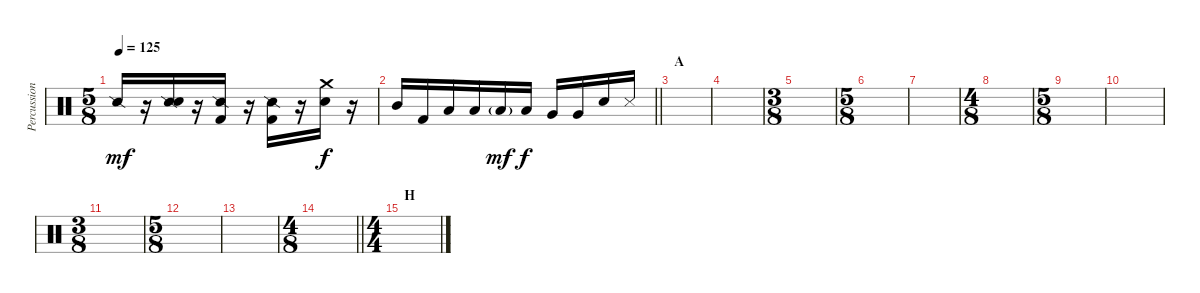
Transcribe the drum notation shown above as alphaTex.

\track ("Percussion" "Percussion") {instrument percussion}
\staff {score}
\articulation defaults
\ts (5 8)
\tempo 125
\clef neutral
\ks c "Snare (side stick) 2".16{dy mf}
r.16 ("Snare (side stick) 2" "Snare (hit) 2").16 r.16 ("Snare (side stick) 2" "Kick (hit) 2").16 r.16 ("Snare (side stick) 2" "Kick (hit) 2").16 r.16 ("Crash medium (hit)" "Snare (hit) 2").16{dy f} r.16 |
\barLineRight lightlight "Mid Tom (hit)".16 "Kick (hit) 2".16 "Low Tom (hit)".16 "Low Tom (hit)".16 "Low Tom (hit)"{g}.16{dy mf} "Low Tom (hit)".16{dy f} "Very Low Tom (hit)".16 "Very Low Tom (hit)".16 "Snare (hit) 2".16 "Metronome (hit)".16
|
\section ("" "A")
|
|
\ts (3 8)
|
\ts (5 8)
|
|
\ts (4 8)
|
\ts (5 8)
|
|
\ts (3 8)
|
\ts (5 8)
|
|
\ts (4 8)
\barLineRight lightlight
|
\ts (4 4)
\section ("" "H")
